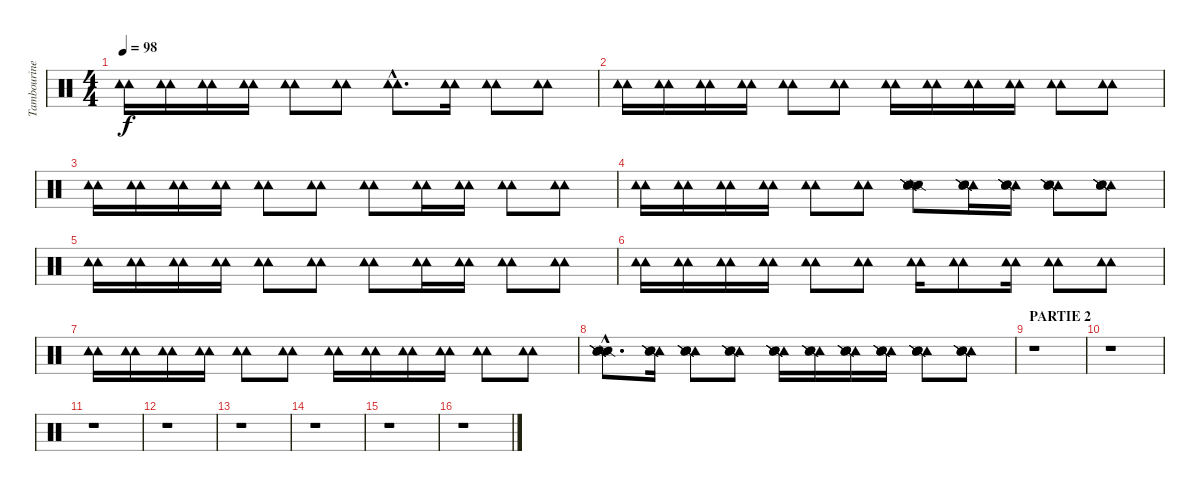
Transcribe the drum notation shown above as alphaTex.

\track ("Tambourine" "Tambourine") {instrument percussion}
\staff {score}
\articulation defaults
\ts (4 4)
\tempo 98
\clef neutral
\ks c
("Tambourine (hit)" "Tambourine (hit)").16{dy f} ("Tambourine (hit)" "Tambourine (hit)").16 ("Tambourine (hit)" "Tambourine (hit)").16 ("Tambourine (hit)" "Tambourine (hit)").16 ("Tambourine (hit)" "Tambourine (hit)").8 ("Tambourine (hit)" "Tambourine (hit)").8 ("Tambourine (hit)"{hac} "Tambourine (hit)"{hac}).8{d} ("Tambourine (hit)" "Tambourine (hit)").16 ("Tambourine (hit)" "Tambourine (hit)").8 ("Tambourine (hit)" "Tambourine (hit)").8 |
("Tambourine (hit)" "Tambourine (hit)").16 ("Tambourine (hit)" "Tambourine (hit)").16 ("Tambourine (hit)" "Tambourine (hit)").16 ("Tambourine (hit)" "Tambourine (hit)").16 ("Tambourine (hit)" "Tambourine (hit)").8 ("Tambourine (hit)" "Tambourine (hit)").8 ("Tambourine (hit)" "Tambourine (hit)").16 ("Tambourine (hit)" "Tambourine (hit)").16 ("Tambourine (hit)" "Tambourine (hit)").16 ("Tambourine (hit)" "Tambourine (hit)").16 ("Tambourine (hit)" "Tambourine (hit)").8 ("Tambourine (hit)" "Tambourine (hit)").8 |
("Tambourine (hit)" "Tambourine (hit)").16 ("Tambourine (hit)" "Tambourine (hit)").16 ("Tambourine (hit)" "Tambourine (hit)").16 ("Tambourine (hit)" "Tambourine (hit)").16 ("Tambourine (hit)" "Tambourine (hit)").8 ("Tambourine (hit)" "Tambourine (hit)").8 ("Tambourine (hit)" "Tambourine (hit)").8 ("Tambourine (hit)" "Tambourine (hit)").16 ("Tambourine (hit)" "Tambourine (hit)").16 ("Tambourine (hit)" "Tambourine (hit)").8 ("Tambourine (hit)" "Tambourine (hit)").8 |
("Tambourine (hit)" "Tambourine (hit)").16 ("Tambourine (hit)" "Tambourine (hit)").16 ("Tambourine (hit)" "Tambourine (hit)").16 ("Tambourine (hit)" "Tambourine (hit)").16 ("Tambourine (hit)" "Tambourine (hit)").8 ("Tambourine (hit)" "Tambourine (hit)").8 ("Snare (side stick) 2" "Snare (side stick) 2" "Snare (side stick) 2" "Snare (side stick) 2").8 ("Tambourine (hit)" "Snare (side stick) 2" "Snare (side stick) 2" "Snare (side stick) 2").16 ("Tambourine (hit)" "Snare (side stick) 2" "Snare (side stick) 2" "Snare (side stick) 2").16 ("Tambourine (hit)" "Snare (side stick) 2" "Snare (side stick) 2" "Snare (side stick) 2").8 ("Tambourine (hit)" "Snare (side stick) 2" "Snare (side stick) 2" "Snare (side stick) 2").8 |
("Tambourine (hit)" "Tambourine (hit)").16 ("Tambourine (hit)" "Tambourine (hit)").16 ("Tambourine (hit)" "Tambourine (hit)").16 ("Tambourine (hit)" "Tambourine (hit)").16 ("Tambourine (hit)" "Tambourine (hit)").8 ("Tambourine (hit)" "Tambourine (hit)").8 ("Tambourine (hit)" "Tambourine (hit)").8 ("Tambourine (hit)" "Tambourine (hit)").16 ("Tambourine (hit)" "Tambourine (hit)").16 ("Tambourine (hit)" "Tambourine (hit)").8 ("Tambourine (hit)" "Tambourine (hit)").8 |
("Tambourine (hit)" "Tambourine (hit)").16 ("Tambourine (hit)" "Tambourine (hit)").16 ("Tambourine (hit)" "Tambourine (hit)").16 ("Tambourine (hit)" "Tambourine (hit)").16 ("Tambourine (hit)" "Tambourine (hit)").8 ("Tambourine (hit)" "Tambourine (hit)").8 ("Tambourine (hit)" "Tambourine (hit)").16 ("Tambourine (hit)" "Tambourine (hit)").8 ("Tambourine (hit)" "Tambourine (hit)").16 ("Tambourine (hit)" "Tambourine (hit)").8 ("Tambourine (hit)" "Tambourine (hit)").8 |
("Tambourine (hit)" "Tambourine (hit)").16 ("Tambourine (hit)" "Tambourine (hit)").16 ("Tambourine (hit)" "Tambourine (hit)").16 ("Tambourine (hit)" "Tambourine (hit)").16 ("Tambourine (hit)" "Tambourine (hit)").8 ("Tambourine (hit)" "Tambourine (hit)").8 ("Tambourine (hit)" "Tambourine (hit)").16 ("Tambourine (hit)" "Tambourine (hit)").16 ("Tambourine (hit)" "Tambourine (hit)").16 ("Tambourine (hit)" "Tambourine (hit)").16 ("Tambourine (hit)" "Tambourine (hit)").8 ("Tambourine (hit)" "Tambourine (hit)").8 |
("Snare (side stick) 2"{hac} "Snare (side stick) 2"{hac} "Snare (side stick) 2"{hac} "Snare (side stick) 2"{hac}).8{d} ("Tambourine (hit)" "Snare (side stick) 2" "Snare (side stick) 2" "Snare (side stick) 2").16 ("Tambourine (hit)" "Snare (side stick) 2" "Snare (side stick) 2" "Snare (side stick) 2").8 ("Tambourine (hit)" "Snare (side stick) 2" "Snare (side stick) 2" "Snare (side stick) 2").8 ("Tambourine (hit)" "Snare (side stick) 2" "Snare (side stick) 2" "Snare (side stick) 2").16 ("Tambourine (hit)" "Snare (side stick) 2" "Snare (side stick) 2" "Snare (side stick) 2").16 ("Tambourine (hit)" "Snare (side stick) 2" "Snare (side stick) 2" "Snare (side stick) 2").16 ("Tambourine (hit)" "Snare (side stick) 2" "Snare (side stick) 2" "Snare (side stick) 2").16 ("Tambourine (hit)" "Snare (side stick) 2" "Snare (side stick) 2" "Snare (side stick) 2").8 ("Tambourine (hit)" "Snare (side stick) 2" "Snare (side stick) 2" "Snare (side stick) 2").8 |
\section ("" "PARTIE 2")
r.1 |
r.1 |
r.1 |
r.1 |
r.1 |
r.1 |
r.1 |
r.1
